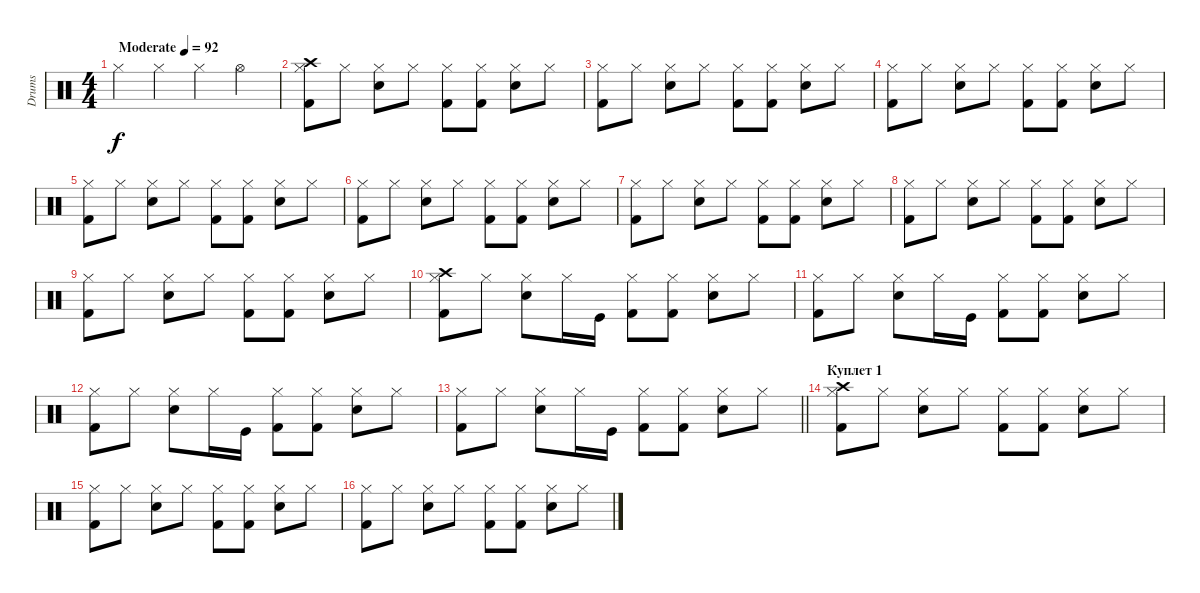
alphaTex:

\track ("Drums" "Drums") {instrument percussion}
\staff {score}
\articulation defaults
\ts (4 4)
\tempo (92 "Moderate")
\clef neutral
\ks c "Hi-Hat (closed)".4{dy f} "Hi-Hat (closed)".4 "Hi-Hat (closed)".4 "Hi-Hat (open)".4
|
("Kick (hit) 2" "Hi-Hat (closed)" "Crash high (hit)").8 "Hi-Hat (closed)".8 ("Electric Snare (hit)" "Hi-Hat (closed)").8 "Hi-Hat (closed)".8 ("Kick (hit) 2" "Hi-Hat (closed)").8 ("Kick (hit) 2" "Hi-Hat (closed)").8 ("Electric Snare (hit)" "Hi-Hat (closed)").8 "Hi-Hat (closed)".8 |
("Kick (hit) 2" "Hi-Hat (closed)").8 "Hi-Hat (closed)".8 ("Electric Snare (hit)" "Hi-Hat (closed)").8 "Hi-Hat (closed)".8 ("Kick (hit) 2" "Hi-Hat (closed)").8 ("Kick (hit) 2" "Hi-Hat (closed)").8 ("Electric Snare (hit)" "Hi-Hat (closed)").8 "Hi-Hat (closed)".8 |
("Kick (hit) 2" "Hi-Hat (closed)").8 "Hi-Hat (closed)".8 ("Electric Snare (hit)" "Hi-Hat (closed)").8 "Hi-Hat (closed)".8 ("Kick (hit) 2" "Hi-Hat (closed)").8 ("Kick (hit) 2" "Hi-Hat (closed)").8 ("Electric Snare (hit)" "Hi-Hat (closed)").8 "Hi-Hat (closed)".8 |
("Kick (hit) 2" "Hi-Hat (closed)").8 "Hi-Hat (closed)".8 ("Electric Snare (hit)" "Hi-Hat (closed)").8 "Hi-Hat (closed)".8 ("Kick (hit) 2" "Hi-Hat (closed)").8 ("Kick (hit) 2" "Hi-Hat (closed)").8 ("Electric Snare (hit)" "Hi-Hat (closed)").8 "Hi-Hat (closed)".8 |
("Kick (hit) 2" "Hi-Hat (closed)").8 "Hi-Hat (closed)".8 ("Electric Snare (hit)" "Hi-Hat (closed)").8 "Hi-Hat (closed)".8 ("Kick (hit) 2" "Hi-Hat (closed)").8 ("Kick (hit) 2" "Hi-Hat (closed)").8 ("Electric Snare (hit)" "Hi-Hat (closed)").8 "Hi-Hat (closed)".8 |
("Kick (hit) 2" "Hi-Hat (closed)").8 "Hi-Hat (closed)".8 ("Electric Snare (hit)" "Hi-Hat (closed)").8 "Hi-Hat (closed)".8 ("Kick (hit) 2" "Hi-Hat (closed)").8 ("Kick (hit) 2" "Hi-Hat (closed)").8 ("Electric Snare (hit)" "Hi-Hat (closed)").8 "Hi-Hat (closed)".8 |
("Kick (hit) 2" "Hi-Hat (closed)").8 "Hi-Hat (closed)".8 ("Electric Snare (hit)" "Hi-Hat (closed)").8 "Hi-Hat (closed)".8 ("Kick (hit) 2" "Hi-Hat (closed)").8 ("Kick (hit) 2" "Hi-Hat (closed)").8 ("Electric Snare (hit)" "Hi-Hat (closed)").8 "Hi-Hat (closed)".8 |
("Kick (hit) 2" "Hi-Hat (closed)").8 "Hi-Hat (closed)".8 ("Electric Snare (hit)" "Hi-Hat (closed)").8 "Hi-Hat (closed)".8 ("Kick (hit) 2" "Hi-Hat (closed)").8 ("Kick (hit) 2" "Hi-Hat (closed)").8 ("Electric Snare (hit)" "Hi-Hat (closed)").8 "Hi-Hat (closed)".8 |
("Kick (hit) 2" "Hi-Hat (closed)" "Crash high (hit)").8 "Hi-Hat (closed)".8 ("Electric Snare (hit)" "Hi-Hat (closed)").8 "Hi-Hat (closed)".16 "Kick (hit)".16 ("Kick (hit) 2" "Hi-Hat (closed)").8 ("Kick (hit) 2" "Hi-Hat (closed)").8 ("Electric Snare (hit)" "Hi-Hat (closed)").8 "Hi-Hat (closed)".8 |
("Kick (hit) 2" "Hi-Hat (closed)").8 "Hi-Hat (closed)".8 ("Electric Snare (hit)" "Hi-Hat (closed)").8 "Hi-Hat (closed)".16 "Kick (hit)".16 ("Kick (hit) 2" "Hi-Hat (closed)").8 ("Kick (hit) 2" "Hi-Hat (closed)").8 ("Electric Snare (hit)" "Hi-Hat (closed)").8 "Hi-Hat (closed)".8 |
("Kick (hit) 2" "Hi-Hat (closed)").8 "Hi-Hat (closed)".8 ("Electric Snare (hit)" "Hi-Hat (closed)").8 "Hi-Hat (closed)".16 "Kick (hit)".16 ("Kick (hit) 2" "Hi-Hat (closed)").8 ("Kick (hit) 2" "Hi-Hat (closed)").8 ("Electric Snare (hit)" "Hi-Hat (closed)").8 "Hi-Hat (closed)".8 |
\barLineRight lightlight
("Kick (hit) 2" "Hi-Hat (closed)").8 "Hi-Hat (closed)".8 ("Electric Snare (hit)" "Hi-Hat (closed)").8 "Hi-Hat (closed)".16 "Kick (hit)".16 ("Kick (hit) 2" "Hi-Hat (closed)").8 ("Kick (hit) 2" "Hi-Hat (closed)").8 ("Electric Snare (hit)" "Hi-Hat (closed)").8 "Hi-Hat (closed)".8 |
\section ("" "Куплет 1")
("Kick (hit) 2" "Hi-Hat (closed)" "Crash high (hit)").8 "Hi-Hat (closed)".8 ("Electric Snare (hit)" "Hi-Hat (closed)").8 "Hi-Hat (closed)".8 ("Kick (hit) 2" "Hi-Hat (closed)").8 ("Kick (hit) 2" "Hi-Hat (closed)").8 ("Electric Snare (hit)" "Hi-Hat (closed)").8 "Hi-Hat (closed)".8 |
("Kick (hit) 2" "Hi-Hat (closed)").8 "Hi-Hat (closed)".8 ("Electric Snare (hit)" "Hi-Hat (closed)").8 "Hi-Hat (closed)".8 ("Kick (hit) 2" "Hi-Hat (closed)").8 ("Kick (hit) 2" "Hi-Hat (closed)").8 ("Electric Snare (hit)" "Hi-Hat (closed)").8 "Hi-Hat (closed)".8 |
("Kick (hit) 2" "Hi-Hat (closed)").8 "Hi-Hat (closed)".8 ("Electric Snare (hit)" "Hi-Hat (closed)").8 "Hi-Hat (closed)".8 ("Kick (hit) 2" "Hi-Hat (closed)").8 ("Kick (hit) 2" "Hi-Hat (closed)").8 ("Electric Snare (hit)" "Hi-Hat (closed)").8 "Hi-Hat (closed)".8
